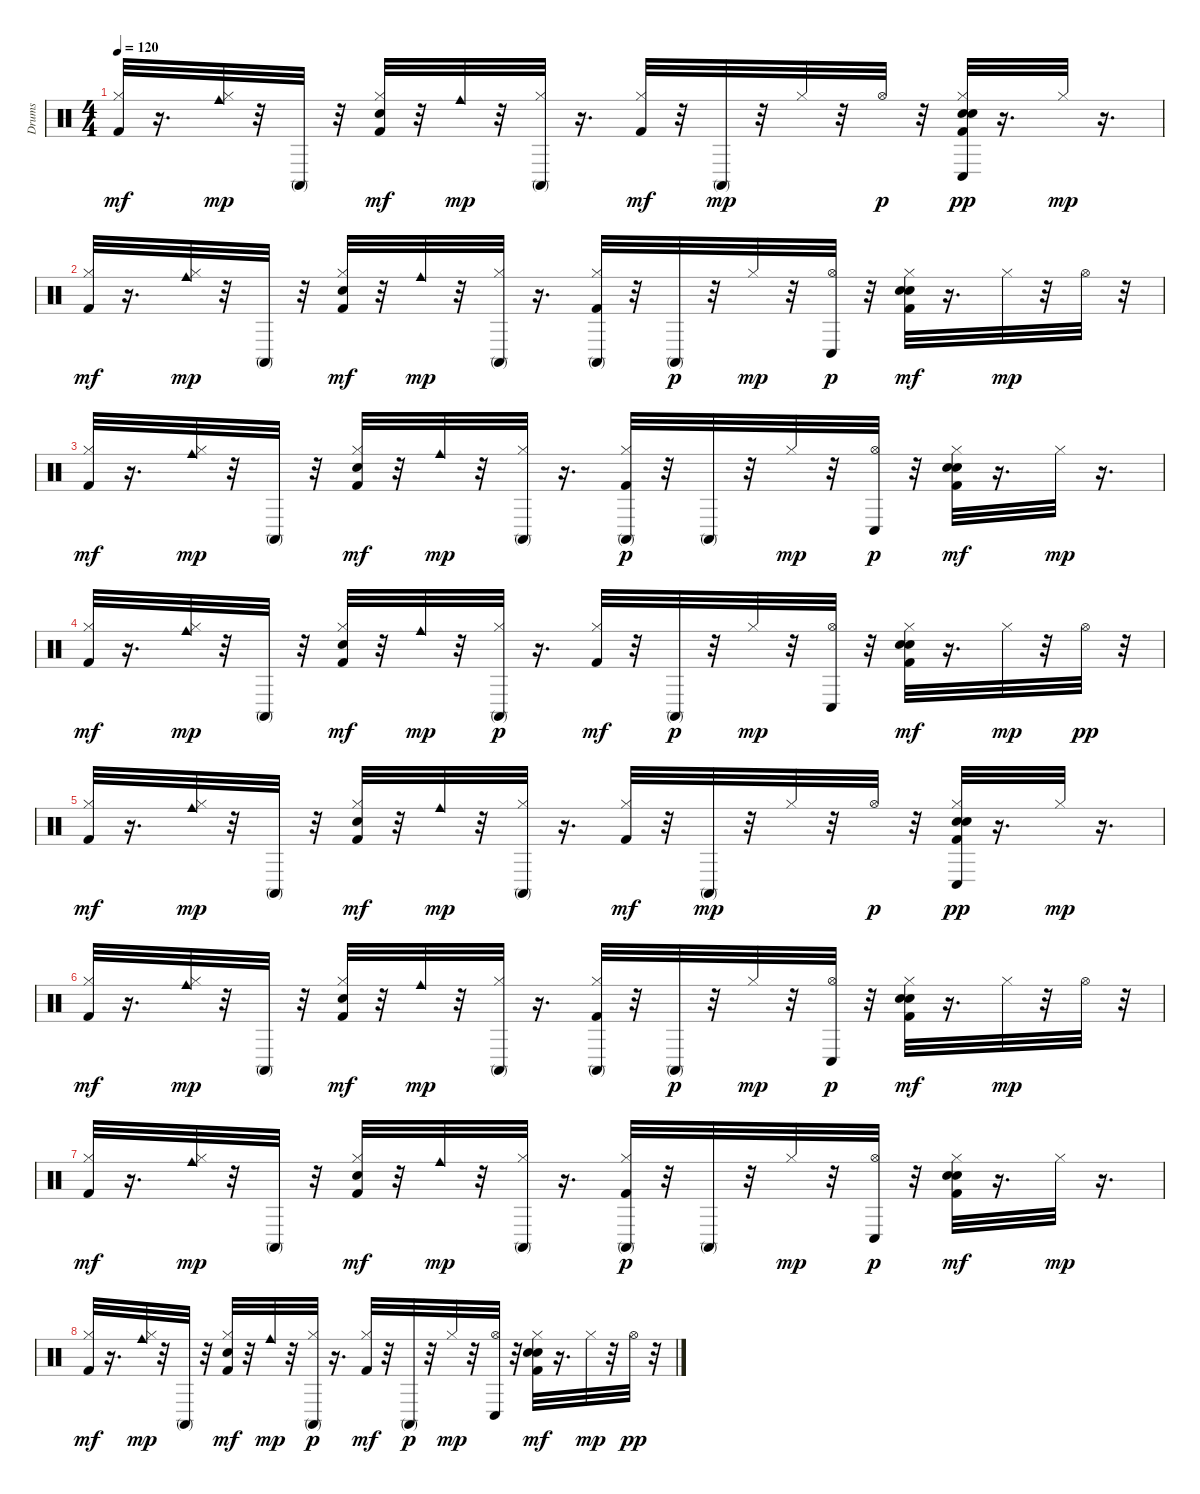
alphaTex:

\track ("Drums" "Drums") {instrument percussion}
\staff {score}
\articulation defaults
\ts (4 4)
\tempo 120
\clef neutral
\ks c
("Hi-Hat (closed)" "Kick (hit) 2").32{dy mf} r.16{d} ("Hi-Hat (closed)" "Cowbell medium (hit)").32{dy mp} r.32 "Conga high (mute)".32 r.32 ("Hi-Hat (closed)" "Electric Snare (hit)" "Kick (hit) 2").32{dy mf} r.32 "Cowbell medium (hit)".32{dy mp} r.32 ("Hi-Hat (closed)" "Conga high (mute)").32 r.16{d} ("Hi-Hat (closed)" "Kick (hit) 2").32{dy mf} r.32 "Conga high (mute)".32{dy mp} r.32 "Hi-Hat (closed)".32 r.32 "Hi-Hat (open)".32{dy p} r.32 ("Hi-Hat (closed)" "Kick (hit) 2" "Hand Clap (hit)" "Electric Snare (hit)" "Conga low (hit)").32{dy pp} r.16{d} "Hi-Hat (closed)".32{dy mp} r.16{d} |
("Hi-Hat (closed)" "Kick (hit) 2").32{dy mf} r.16{d} ("Hi-Hat (closed)" "Cowbell medium (hit)").32{dy mp} r.32 "Conga high (mute)".32 r.32 ("Hi-Hat (closed)" "Electric Snare (hit)" "Kick (hit) 2").32{dy mf} r.32 "Cowbell medium (hit)".32{dy mp} r.32 ("Hi-Hat (closed)" "Conga high (mute)").32 r.16{d} ("Hi-Hat (closed)" "Kick (hit) 2" "Conga high (mute)").32 r.32 "Conga high (mute)".32{dy p} r.32 "Hi-Hat (closed)".32{dy mp} r.32 ("Hi-Hat (open)" "Conga low (hit)").32{dy p} r.32 ("Kick (hit) 2" "Hi-Hat (closed)" "Electric Snare (hit)" "Hand Clap (hit)").32{dy mf} r.16{d} "Hi-Hat (closed)".32{dy mp} r.32 "Hi-Hat (open)".32 r.32 |
("Hi-Hat (closed)" "Kick (hit) 2").32{dy mf} r.16{d} ("Hi-Hat (closed)" "Cowbell medium (hit)").32{dy mp} r.32 "Conga high (mute)".32 r.32 ("Hi-Hat (closed)" "Electric Snare (hit)" "Kick (hit) 2").32{dy mf} r.32 "Cowbell medium (hit)".32{dy mp} r.32 ("Hi-Hat (closed)" "Conga high (mute)").32 r.16{d} ("Kick (hit) 2" "Hi-Hat (closed)" "Conga high (mute)").32{dy p} r.32 "Conga high (mute)".32 r.32 "Hi-Hat (closed)".32{dy mp} r.32 ("Hi-Hat (open)" "Conga low (hit)").32{dy p} r.32 ("Hi-Hat (closed)" "Hand Clap (hit)" "Electric Snare (hit)" "Kick (hit) 2").32{dy mf} r.16{d} "Hi-Hat (closed)".32{dy mp} r.16{d} |
("Hi-Hat (closed)" "Kick (hit) 2").32{dy mf} r.16{d} ("Hi-Hat (closed)" "Cowbell medium (hit)").32{dy mp} r.32 "Conga high (mute)".32 r.32 ("Hi-Hat (closed)" "Electric Snare (hit)" "Kick (hit) 2").32{dy mf} r.32 "Cowbell medium (hit)".32{dy mp} r.32 ("Hi-Hat (closed)" "Conga high (mute)").32{dy p} r.16{d} ("Hi-Hat (closed)" "Kick (hit) 2").32{dy mf} r.32 "Conga high (mute)".32{dy p} r.32 "Hi-Hat (closed)".32{dy mp} r.32 ("Hi-Hat (open)" "Conga low (hit)").32 r.32 ("Kick (hit) 2" "Hi-Hat (closed)" "Electric Snare (hit)" "Hand Clap (hit)").32{dy mf} r.16{d} "Hi-Hat (closed)".32{dy mp} r.32 "Hi-Hat (open)".32{dy pp} r.32 |
("Hi-Hat (closed)" "Kick (hit) 2").32{dy mf} r.16{d} ("Hi-Hat (closed)" "Cowbell medium (hit)").32{dy mp} r.32 "Conga high (mute)".32 r.32 ("Hi-Hat (closed)" "Electric Snare (hit)" "Kick (hit) 2").32{dy mf} r.32 "Cowbell medium (hit)".32{dy mp} r.32 ("Hi-Hat (closed)" "Conga high (mute)").32 r.16{d} ("Hi-Hat (closed)" "Kick (hit) 2").32{dy mf} r.32 "Conga high (mute)".32{dy mp} r.32 "Hi-Hat (closed)".32 r.32 "Hi-Hat (open)".32{dy p} r.32 ("Hi-Hat (closed)" "Kick (hit) 2" "Hand Clap (hit)" "Electric Snare (hit)" "Conga low (hit)").32{dy pp} r.16{d} "Hi-Hat (closed)".32{dy mp} r.16{d} |
("Hi-Hat (closed)" "Kick (hit) 2").32{dy mf} r.16{d} ("Hi-Hat (closed)" "Cowbell medium (hit)").32{dy mp} r.32 "Conga high (mute)".32 r.32 ("Hi-Hat (closed)" "Electric Snare (hit)" "Kick (hit) 2").32{dy mf} r.32 "Cowbell medium (hit)".32{dy mp} r.32 ("Hi-Hat (closed)" "Conga high (mute)").32 r.16{d} ("Hi-Hat (closed)" "Kick (hit) 2" "Conga high (mute)").32 r.32 "Conga high (mute)".32{dy p} r.32 "Hi-Hat (closed)".32{dy mp} r.32 ("Hi-Hat (open)" "Conga low (hit)").32{dy p} r.32 ("Kick (hit) 2" "Hi-Hat (closed)" "Electric Snare (hit)" "Hand Clap (hit)").32{dy mf} r.16{d} "Hi-Hat (closed)".32{dy mp} r.32 "Hi-Hat (open)".32 r.32 |
("Hi-Hat (closed)" "Kick (hit) 2").32{dy mf} r.16{d} ("Hi-Hat (closed)" "Cowbell medium (hit)").32{dy mp} r.32 "Conga high (mute)".32 r.32 ("Hi-Hat (closed)" "Electric Snare (hit)" "Kick (hit) 2").32{dy mf} r.32 "Cowbell medium (hit)".32{dy mp} r.32 ("Hi-Hat (closed)" "Conga high (mute)").32 r.16{d} ("Kick (hit) 2" "Hi-Hat (closed)" "Conga high (mute)").32{dy p} r.32 "Conga high (mute)".32 r.32 "Hi-Hat (closed)".32{dy mp} r.32 ("Hi-Hat (open)" "Conga low (hit)").32{dy p} r.32 ("Hi-Hat (closed)" "Hand Clap (hit)" "Electric Snare (hit)" "Kick (hit) 2").32{dy mf} r.16{d} "Hi-Hat (closed)".32{dy mp} r.16{d} |
("Hi-Hat (closed)" "Kick (hit) 2").32{dy mf} r.16{d} ("Hi-Hat (closed)" "Cowbell medium (hit)").32{dy mp} r.32 "Conga high (mute)".32 r.32 ("Hi-Hat (closed)" "Electric Snare (hit)" "Kick (hit) 2").32{dy mf} r.32 "Cowbell medium (hit)".32{dy mp} r.32 ("Hi-Hat (closed)" "Conga high (mute)").32{dy p} r.16{d} ("Hi-Hat (closed)" "Kick (hit) 2").32{dy mf} r.32 "Conga high (mute)".32{dy p} r.32 "Hi-Hat (closed)".32{dy mp} r.32 ("Hi-Hat (open)" "Conga low (hit)").32 r.32 ("Kick (hit) 2" "Hi-Hat (closed)" "Electric Snare (hit)" "Hand Clap (hit)").32{dy mf} r.16{d} "Hi-Hat (closed)".32{dy mp} r.32 "Hi-Hat (open)".32{dy pp} r.32
